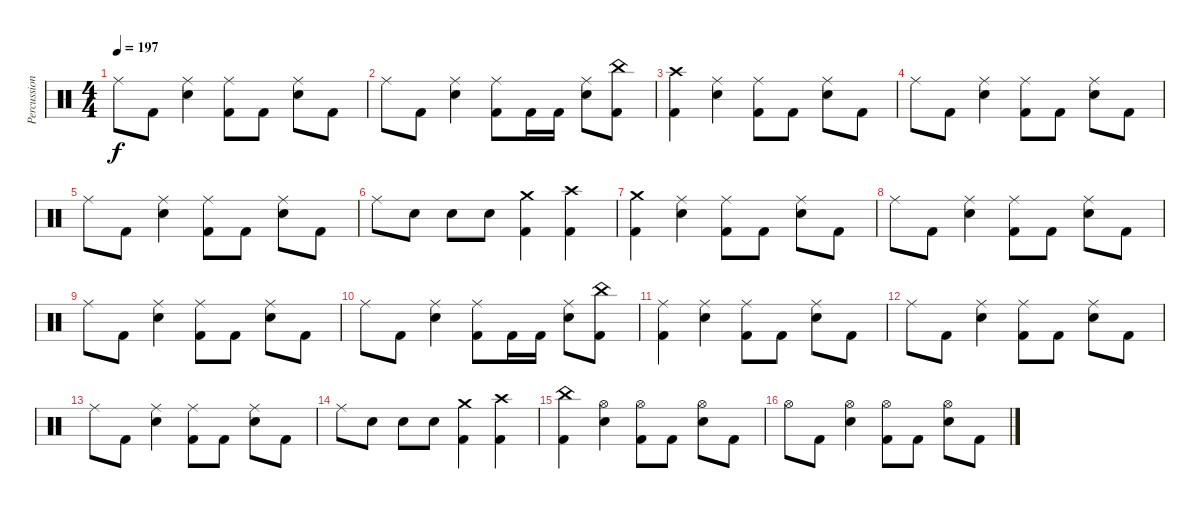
\track ("Percussions" "Percussion") {instrument percussion}
\staff {score}
\articulation defaults
\ts (4 4)
\tempo 197
\clef neutral
\ks c "Ride (middle)".8{dy f} "Kick (hit) 2".8
("Ride (middle)" "Snare (hit) 2").4 ("Ride (middle)" "Kick (hit) 2").8 "Kick (hit) 2".8 ("Ride (middle)" "Snare (hit) 2").8 "Kick (hit) 2".8 |
"Ride (middle)".8 "Kick (hit) 2".8 ("Ride (middle)" "Snare (hit) 2").4 ("Ride (middle)" "Kick (hit) 2").8 "Kick (hit) 2".16 "Kick (hit) 2".16 ("Ride (middle)" "Snare (hit) 2").8 ("China (hit)" "Kick (hit) 2").8 |
("Crash high (hit)" "Kick (hit) 2").4 ("Ride (middle)" "Snare (hit) 2").4 ("Ride (middle)" "Kick (hit) 2").8 "Kick (hit) 2".8 ("Ride (middle)" "Snare (hit) 2").8 "Kick (hit) 2".8 |
"Ride (middle)".8 "Kick (hit) 2".8 ("Ride (middle)" "Snare (hit) 2").4 ("Ride (middle)" "Kick (hit) 2").8 "Kick (hit) 2".8 ("Ride (middle)" "Snare (hit) 2").8 "Kick (hit) 2".8 |
"Ride (middle)".8 "Kick (hit) 2".8 ("Ride (middle)" "Snare (hit) 2").4 ("Ride (middle)" "Kick (hit) 2").8 "Kick (hit) 2".8 ("Ride (middle)" "Snare (hit) 2").8 "Kick (hit) 2".8 |
"Ride (middle)".8 "Snare (hit) 2".8 "Snare (hit) 2".8 "Snare (hit) 2".8 ("Crash medium (hit)" "Kick (hit) 2").4 ("Crash high (hit)" "Kick (hit) 2").4 |
("Crash medium (hit)" "Kick (hit) 2").4 ("Ride (middle)" "Snare (hit) 2").4 ("Ride (middle)" "Kick (hit) 2").8 "Kick (hit) 2".8 ("Ride (middle)" "Snare (hit) 2").8 "Kick (hit) 2".8 |
"Ride (middle)".8 "Kick (hit) 2".8 ("Ride (middle)" "Snare (hit) 2").4 ("Ride (middle)" "Kick (hit) 2").8 "Kick (hit) 2".8 ("Ride (middle)" "Snare (hit) 2").8 "Kick (hit) 2".8 |
"Ride (middle)".8 "Kick (hit) 2".8 ("Ride (middle)" "Snare (hit) 2").4 ("Ride (middle)" "Kick (hit) 2").8 "Kick (hit) 2".8 ("Ride (middle)" "Snare (hit) 2").8 "Kick (hit) 2".8 |
"Ride (middle)".8 "Kick (hit) 2".8 ("Ride (middle)" "Snare (hit) 2").4 ("Ride (middle)" "Kick (hit) 2").8 "Kick (hit) 2".16 "Kick (hit) 2".16 ("Ride (middle)" "Snare (hit) 2").8 ("China (hit)" "Kick (hit) 2").8 |
("Ride (middle)" "Kick (hit) 2").4 ("Ride (middle)" "Snare (hit) 2").4 ("Ride (middle)" "Kick (hit) 2").8 "Kick (hit) 2".8 ("Ride (middle)" "Snare (hit) 2").8 "Kick (hit) 2".8 |
"Ride (middle)".8 "Kick (hit) 2".8 ("Ride (middle)" "Snare (hit) 2").4 ("Ride (middle)" "Kick (hit) 2").8 "Kick (hit) 2".8 ("Ride (middle)" "Snare (hit) 2").8 "Kick (hit) 2".8 |
"Ride (middle)".8 "Kick (hit) 2".8 ("Ride (middle)" "Snare (hit) 2").4 ("Ride (middle)" "Kick (hit) 2").8 "Kick (hit) 2".8 ("Ride (middle)" "Snare (hit) 2").8 "Kick (hit) 2".8 |
"Ride (middle)".8 "Snare (hit) 2".8 "Snare (hit) 2".8 "Snare (hit) 2".8 ("Crash medium (hit)" "Kick (hit) 2").4 ("Crash high (hit)" "Kick (hit) 2").4 |
("China (hit)" "Kick (hit) 2").4 ("Hi-Hat (open)" "Snare (hit) 2").4 ("Hi-Hat (open)" "Kick (hit) 2").8 "Kick (hit) 2".8 ("Hi-Hat (open)" "Snare (hit) 2").8 "Kick (hit) 2".8 |
"Hi-Hat (open)".8 "Kick (hit) 2".8 ("Hi-Hat (open)" "Snare (hit) 2").4 ("Hi-Hat (open)" "Kick (hit) 2").8 "Kick (hit) 2".8 ("Hi-Hat (open)" "Snare (hit) 2").8 "Kick (hit) 2".8
